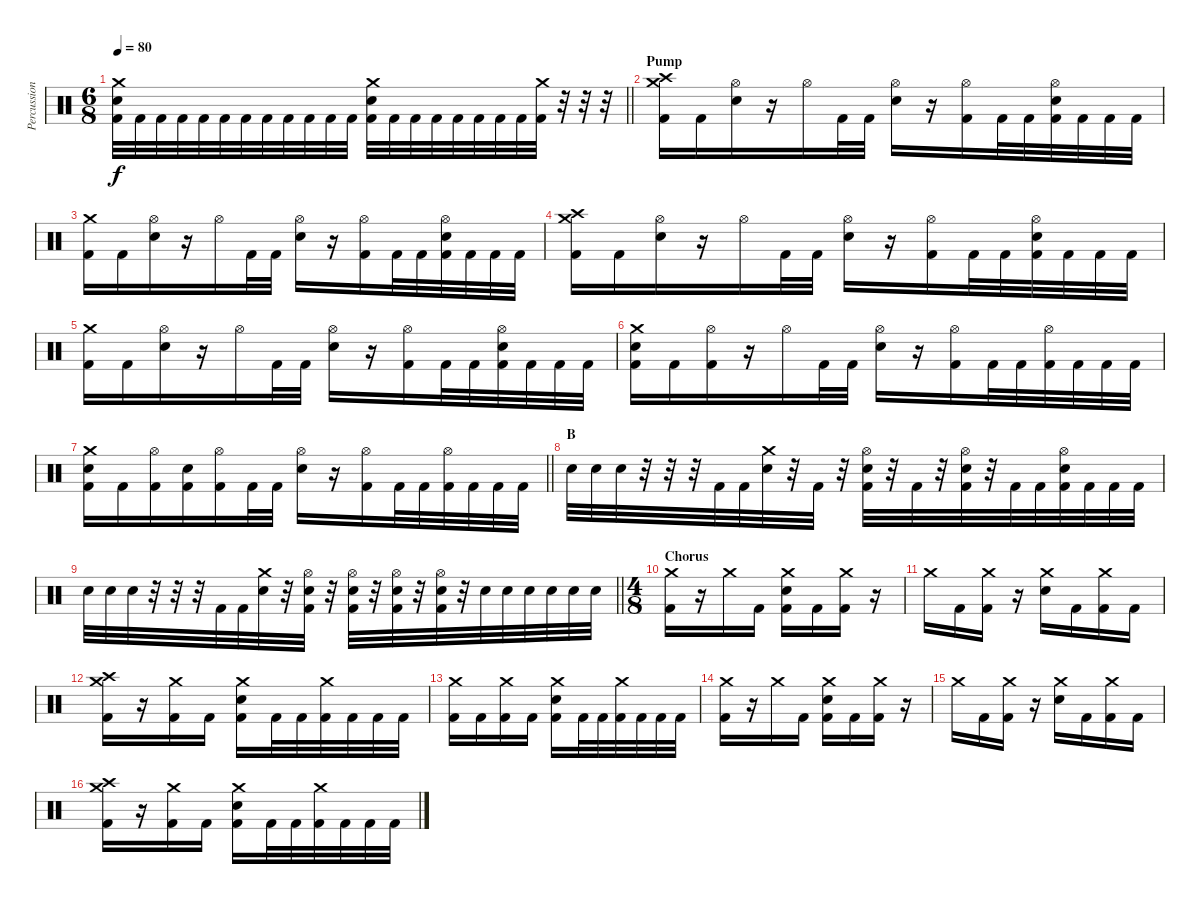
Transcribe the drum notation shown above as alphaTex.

\track ("Percussion" "Percussion") {instrument percussion}
\staff {score}
\articulation defaults
\ts (6 8)
\tempo 80
\clef neutral
\barLineRight lightlight
\ks c
("Crash medium (hit)" "Snare (hit) 2" "Kick (hit) 2").32{dy f} "Kick (hit) 2".32 "Kick (hit) 2".32 "Kick (hit) 2".32 "Kick (hit) 2".32 "Kick (hit) 2".32 "Kick (hit) 2".32 "Kick (hit) 2".32 "Kick (hit) 2".32 "Kick (hit) 2".32 "Kick (hit) 2".32 "Kick (hit) 2".32 ("Crash medium (hit)" "Snare (hit) 2" "Kick (hit) 2").32 "Kick (hit) 2".32 "Kick (hit) 2".32 "Kick (hit) 2".32 "Kick (hit) 2".32 "Kick (hit) 2".32 "Kick (hit) 2".32 "Kick (hit) 2".32 ("Crash medium (hit)" "Kick (hit) 2").32 r.32 r.32 r.32 |
\section ("" "Pump")
("Crash high (hit)" "Crash medium (hit)" "Kick (hit) 2").16 "Kick (hit) 2".16 ("Hi-Hat (open)" "Snare (hit) 2").16 r.16 "Hi-Hat (open)".16 "Kick (hit) 2".32 "Kick (hit) 2".32 ("Hi-Hat (open)" "Snare (hit) 2").16 r.16 ("Hi-Hat (open)" "Kick (hit) 2").16 "Kick (hit) 2".32 "Kick (hit) 2".32 ("Hi-Hat (open)" "Snare (hit) 2" "Kick (hit) 2").32 "Kick (hit) 2".32 "Kick (hit) 2".32 "Kick (hit) 2".32 |
("Crash medium (hit)" "Kick (hit) 2").16 "Kick (hit) 2".16 ("Hi-Hat (open)" "Snare (hit) 2").16 r.16 "Hi-Hat (open)".16 "Kick (hit) 2".32 "Kick (hit) 2".32 ("Hi-Hat (open)" "Snare (hit) 2").16 r.16 ("Hi-Hat (open)" "Kick (hit) 2").16 "Kick (hit) 2".32 "Kick (hit) 2".32 ("Hi-Hat (open)" "Snare (hit) 2" "Kick (hit) 2").32 "Kick (hit) 2".32 "Kick (hit) 2".32 "Kick (hit) 2".32 |
("Crash high (hit)" "Crash medium (hit)" "Kick (hit) 2").16 "Kick (hit) 2".16 ("Hi-Hat (open)" "Snare (hit) 2").16 r.16 "Hi-Hat (open)".16 "Kick (hit) 2".32 "Kick (hit) 2".32 ("Hi-Hat (open)" "Snare (hit) 2").16 r.16 ("Hi-Hat (open)" "Kick (hit) 2").16 "Kick (hit) 2".32 "Kick (hit) 2".32 ("Hi-Hat (open)" "Snare (hit) 2" "Kick (hit) 2").32 "Kick (hit) 2".32 "Kick (hit) 2".32 "Kick (hit) 2".32 |
("Crash medium (hit)" "Kick (hit) 2").16 "Kick (hit) 2".16 ("Hi-Hat (open)" "Snare (hit) 2").16 r.16 "Hi-Hat (open)".16 "Kick (hit) 2".32 "Kick (hit) 2".32 ("Hi-Hat (open)" "Snare (hit) 2").16 r.16 ("Hi-Hat (open)" "Kick (hit) 2").16 "Kick (hit) 2".32 "Kick (hit) 2".32 ("Hi-Hat (open)" "Snare (hit) 2" "Kick (hit) 2").32 "Kick (hit) 2".32 "Kick (hit) 2".32 "Kick (hit) 2".32 |
("Crash medium (hit)" "Snare (hit) 2" "Kick (hit) 2").16 "Kick (hit) 2".16 ("Hi-Hat (open)" "Kick (hit) 2").16 r.16 "Hi-Hat (open)".16 "Kick (hit) 2".32 "Kick (hit) 2".32 ("Hi-Hat (open)" "Snare (hit) 2").16 r.16 ("Hi-Hat (open)" "Kick (hit) 2").16 "Kick (hit) 2".32 "Kick (hit) 2".32 ("Hi-Hat (open)" "Kick (hit) 2").32 "Kick (hit) 2".32 "Kick (hit) 2".32 "Kick (hit) 2".32 |
\barLineRight lightlight
("Crash medium (hit)" "Snare (hit) 2" "Kick (hit) 2").16 "Kick (hit) 2".16 ("Hi-Hat (open)" "Kick (hit) 2").16 ("Snare (hit) 2" "Kick (hit) 2").16 ("Hi-Hat (open)" "Kick (hit) 2").16 "Kick (hit) 2".32 "Kick (hit) 2".32 ("Hi-Hat (open)" "Snare (hit) 2").16 r.16 ("Hi-Hat (open)" "Kick (hit) 2").16 "Kick (hit) 2".32 "Kick (hit) 2".32 ("Hi-Hat (open)" "Kick (hit) 2").32 "Kick (hit) 2".32 "Kick (hit) 2".32 "Kick (hit) 2".32 |
\section ("" "B")
"Snare (hit) 2".32 "Snare (hit) 2".32 "Snare (hit) 2".32 r.32 r.32 r.32 "Kick (hit) 2".32 "Kick (hit) 2".32 ("Crash medium (hit)" "Snare (hit) 2").32 r.32 "Kick (hit) 2".32 r.32 ("Hi-Hat (open)" "Snare (hit) 2" "Kick (hit) 2").32 r.32 "Kick (hit) 2".32 r.32 ("Hi-Hat (open)" "Snare (hit) 2" "Kick (hit) 2").32 r.32 "Kick (hit) 2".32 "Kick (hit) 2".32 ("Hi-Hat (open)" "Snare (hit) 2" "Kick (hit) 2").32 "Kick (hit) 2".32 "Kick (hit) 2".32 "Kick (hit) 2".32 |
\barLineRight lightlight "Snare (hit) 2".32 "Snare (hit) 2".32 "Snare (hit) 2".32
r.32 r.32 r.32 "Kick (hit) 2".32 "Kick (hit) 2".32 ("Crash medium (hit)" "Snare (hit) 2").32 r.32 ("Hi-Hat (open)" "Snare (hit) 2" "Kick (hit) 2").32 r.32 ("Hi-Hat (open)" "Snare (hit) 2" "Kick (hit) 2").32 r.32 ("Hi-Hat (open)" "Snare (hit) 2" "Kick (hit) 2").32 r.32 ("Hi-Hat (open)" "Snare (hit) 2" "Kick (hit) 2").32 r.32 "Snare (hit) 2".32 "Snare (hit) 2".32 "Snare (hit) 2".32 "Snare (hit) 2".32 "Snare (hit) 2".32 "Snare (hit) 2".32 |
\ts (4 8)
\section ("" "Chorus")
("Crash medium (hit)" "Kick (hit) 2").16 r.16 "Crash medium (hit)".16 "Kick (hit) 2".16 ("Crash medium (hit)" "Snare (hit) 2" "Kick (hit) 2").16 "Kick (hit) 2".16 ("Crash medium (hit)" "Kick (hit) 2").16 r.16 |
"Crash medium (hit)".16 "Kick (hit) 2".16 ("Crash medium (hit)" "Kick (hit) 2").16 r.16 ("Crash medium (hit)" "Snare (hit) 2").16 "Kick (hit) 2".16 ("Crash medium (hit)" "Kick (hit) 2").16 "Kick (hit) 2".16 |
("Crash high (hit)" "Crash medium (hit)" "Kick (hit) 2").16 r.16 ("Crash medium (hit)" "Kick (hit) 2").16 "Kick (hit) 2".16 ("Crash medium (hit)" "Snare (hit) 2" "Kick (hit) 2").16 "Kick (hit) 2".32 "Kick (hit) 2".32 ("Crash medium (hit)" "Kick (hit) 2").32 "Kick (hit) 2".32 "Kick (hit) 2".32 "Kick (hit) 2".32 |
("Crash medium (hit)" "Kick (hit) 2").16 "Kick (hit) 2".16 ("Crash medium (hit)" "Kick (hit) 2").16 "Kick (hit) 2".16 ("Crash medium (hit)" "Snare (hit) 2" "Kick (hit) 2").16 "Kick (hit) 2".32 "Kick (hit) 2".32 ("Crash medium (hit)" "Kick (hit) 2").32 "Kick (hit) 2".32 "Kick (hit) 2".32 "Kick (hit) 2".32 |
("Crash medium (hit)" "Kick (hit) 2").16 r.16 "Crash medium (hit)".16 "Kick (hit) 2".16 ("Crash medium (hit)" "Snare (hit) 2" "Kick (hit) 2").16 "Kick (hit) 2".16 ("Crash medium (hit)" "Kick (hit) 2").16 r.16 |
"Crash medium (hit)".16 "Kick (hit) 2".16 ("Crash medium (hit)" "Kick (hit) 2").16 r.16 ("Crash medium (hit)" "Snare (hit) 2").16 "Kick (hit) 2".16 ("Crash medium (hit)" "Kick (hit) 2").16 "Kick (hit) 2".16 |
("Crash high (hit)" "Crash medium (hit)" "Kick (hit) 2").16 r.16 ("Crash medium (hit)" "Kick (hit) 2").16 "Kick (hit) 2".16 ("Crash medium (hit)" "Snare (hit) 2" "Kick (hit) 2").16 "Kick (hit) 2".32 "Kick (hit) 2".32 ("Crash medium (hit)" "Kick (hit) 2").32 "Kick (hit) 2".32 "Kick (hit) 2".32 "Kick (hit) 2".32
